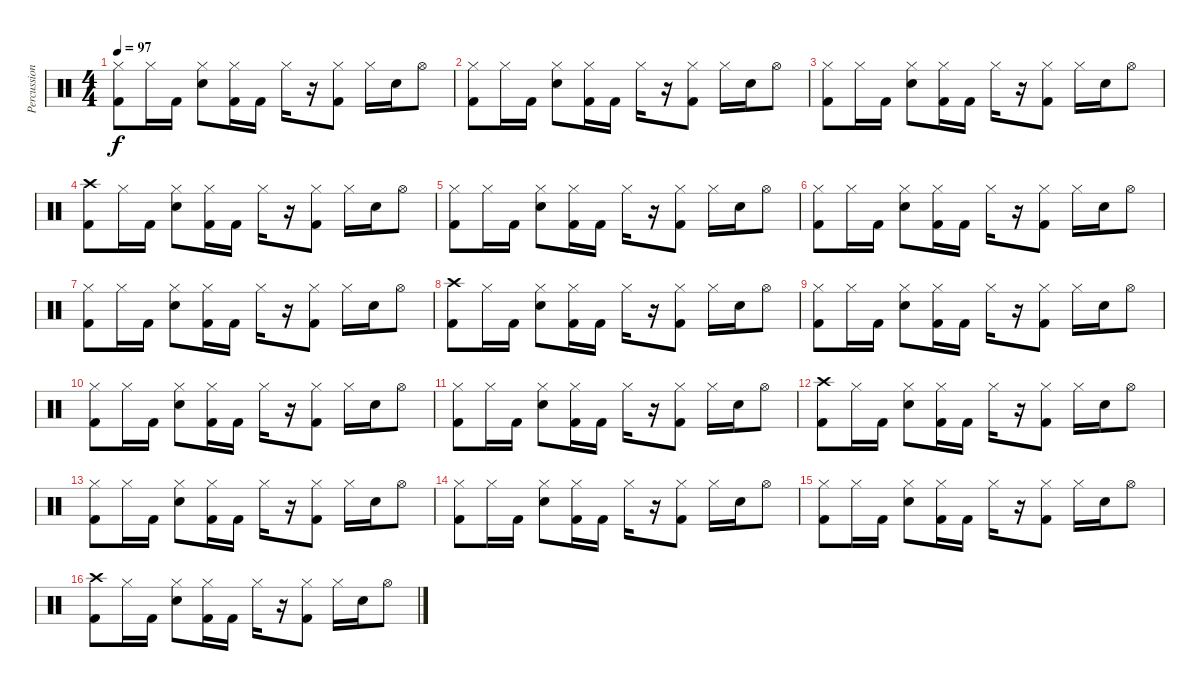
\track ("Percussion" "Percussion") {instrument percussion}
\staff {score}
\articulation defaults
\ts (4 4)
\tempo 97
\clef neutral
\ks c
("Hi-Hat (closed)" "Kick (hit) 2").8{dy f} "Hi-Hat (closed)".16 "Kick (hit) 2".16 ("Hi-Hat (closed)" "Snare (hit) 2").8 ("Hi-Hat (closed)" "Kick (hit) 2").16 "Kick (hit) 2".16 "Hi-Hat (closed)".16 r.16 ("Hi-Hat (closed)" "Kick (hit) 2").8 "Hi-Hat (closed)".16 "Snare (hit) 2".16 "Hi-Hat (open)".8 |
("Hi-Hat (closed)" "Kick (hit) 2").8 "Hi-Hat (closed)".16 "Kick (hit) 2".16 ("Hi-Hat (closed)" "Snare (hit) 2").8 ("Hi-Hat (closed)" "Kick (hit) 2").16 "Kick (hit) 2".16 "Hi-Hat (closed)".16 r.16 ("Hi-Hat (closed)" "Kick (hit) 2").8 "Hi-Hat (closed)".16 "Snare (hit) 2".16 "Hi-Hat (open)".8 |
("Hi-Hat (closed)" "Kick (hit) 2").8 "Hi-Hat (closed)".16 "Kick (hit) 2".16 ("Hi-Hat (closed)" "Snare (hit) 2").8 ("Hi-Hat (closed)" "Kick (hit) 2").16 "Kick (hit) 2".16 "Hi-Hat (closed)".16 r.16 ("Hi-Hat (closed)" "Kick (hit) 2").8 "Hi-Hat (closed)".16 "Snare (hit) 2".16 "Hi-Hat (open)".8 |
("Crash high (hit)" "Kick (hit) 2").8 "Hi-Hat (closed)".16 "Kick (hit) 2".16 ("Hi-Hat (closed)" "Snare (hit) 2").8 ("Hi-Hat (closed)" "Kick (hit) 2").16 "Kick (hit) 2".16 "Hi-Hat (closed)".16 r.16 ("Hi-Hat (closed)" "Kick (hit) 2").8 "Hi-Hat (closed)".16 "Snare (hit) 2".16 "Hi-Hat (open)".8 |
("Hi-Hat (closed)" "Kick (hit) 2").8 "Hi-Hat (closed)".16 "Kick (hit) 2".16 ("Hi-Hat (closed)" "Snare (hit) 2").8 ("Hi-Hat (closed)" "Kick (hit) 2").16 "Kick (hit) 2".16 "Hi-Hat (closed)".16 r.16 ("Hi-Hat (closed)" "Kick (hit) 2").8 "Hi-Hat (closed)".16 "Snare (hit) 2".16 "Hi-Hat (open)".8 |
("Hi-Hat (closed)" "Kick (hit) 2").8 "Hi-Hat (closed)".16 "Kick (hit) 2".16 ("Hi-Hat (closed)" "Snare (hit) 2").8 ("Hi-Hat (closed)" "Kick (hit) 2").16 "Kick (hit) 2".16 "Hi-Hat (closed)".16 r.16 ("Hi-Hat (closed)" "Kick (hit) 2").8 "Hi-Hat (closed)".16 "Snare (hit) 2".16 "Hi-Hat (open)".8 |
("Hi-Hat (closed)" "Kick (hit) 2").8 "Hi-Hat (closed)".16 "Kick (hit) 2".16 ("Hi-Hat (closed)" "Snare (hit) 2").8 ("Hi-Hat (closed)" "Kick (hit) 2").16 "Kick (hit) 2".16 "Hi-Hat (closed)".16 r.16 ("Hi-Hat (closed)" "Kick (hit) 2").8 "Hi-Hat (closed)".16 "Snare (hit) 2".16 "Hi-Hat (open)".8 |
("Crash high (hit)" "Kick (hit) 2").8 "Hi-Hat (closed)".16 "Kick (hit) 2".16 ("Hi-Hat (closed)" "Snare (hit) 2").8 ("Hi-Hat (closed)" "Kick (hit) 2").16 "Kick (hit) 2".16 "Hi-Hat (closed)".16 r.16 ("Hi-Hat (closed)" "Kick (hit) 2").8 "Hi-Hat (closed)".16 "Snare (hit) 2".16 "Hi-Hat (open)".8 |
("Hi-Hat (closed)" "Kick (hit) 2").8 "Hi-Hat (closed)".16 "Kick (hit) 2".16 ("Hi-Hat (closed)" "Snare (hit) 2").8 ("Hi-Hat (closed)" "Kick (hit) 2").16 "Kick (hit) 2".16 "Hi-Hat (closed)".16 r.16 ("Hi-Hat (closed)" "Kick (hit) 2").8 "Hi-Hat (closed)".16 "Snare (hit) 2".16 "Hi-Hat (open)".8 |
("Hi-Hat (closed)" "Kick (hit) 2").8 "Hi-Hat (closed)".16 "Kick (hit) 2".16 ("Hi-Hat (closed)" "Snare (hit) 2").8 ("Hi-Hat (closed)" "Kick (hit) 2").16 "Kick (hit) 2".16 "Hi-Hat (closed)".16 r.16 ("Hi-Hat (closed)" "Kick (hit) 2").8 "Hi-Hat (closed)".16 "Snare (hit) 2".16 "Hi-Hat (open)".8 |
("Hi-Hat (closed)" "Kick (hit) 2").8 "Hi-Hat (closed)".16 "Kick (hit) 2".16 ("Hi-Hat (closed)" "Snare (hit) 2").8 ("Hi-Hat (closed)" "Kick (hit) 2").16 "Kick (hit) 2".16 "Hi-Hat (closed)".16 r.16 ("Hi-Hat (closed)" "Kick (hit) 2").8 "Hi-Hat (closed)".16 "Snare (hit) 2".16 "Hi-Hat (open)".8 |
("Crash high (hit)" "Kick (hit) 2").8 "Hi-Hat (closed)".16 "Kick (hit) 2".16 ("Hi-Hat (closed)" "Snare (hit) 2").8 ("Hi-Hat (closed)" "Kick (hit) 2").16 "Kick (hit) 2".16 "Hi-Hat (closed)".16 r.16 ("Hi-Hat (closed)" "Kick (hit) 2").8 "Hi-Hat (closed)".16 "Snare (hit) 2".16 "Hi-Hat (open)".8 |
("Hi-Hat (closed)" "Kick (hit) 2").8 "Hi-Hat (closed)".16 "Kick (hit) 2".16 ("Hi-Hat (closed)" "Snare (hit) 2").8 ("Hi-Hat (closed)" "Kick (hit) 2").16 "Kick (hit) 2".16 "Hi-Hat (closed)".16 r.16 ("Hi-Hat (closed)" "Kick (hit) 2").8 "Hi-Hat (closed)".16 "Snare (hit) 2".16 "Hi-Hat (open)".8 |
("Hi-Hat (closed)" "Kick (hit) 2").8 "Hi-Hat (closed)".16 "Kick (hit) 2".16 ("Hi-Hat (closed)" "Snare (hit) 2").8 ("Hi-Hat (closed)" "Kick (hit) 2").16 "Kick (hit) 2".16 "Hi-Hat (closed)".16 r.16 ("Hi-Hat (closed)" "Kick (hit) 2").8 "Hi-Hat (closed)".16 "Snare (hit) 2".16 "Hi-Hat (open)".8 |
("Hi-Hat (closed)" "Kick (hit) 2").8 "Hi-Hat (closed)".16 "Kick (hit) 2".16 ("Hi-Hat (closed)" "Snare (hit) 2").8 ("Hi-Hat (closed)" "Kick (hit) 2").16 "Kick (hit) 2".16 "Hi-Hat (closed)".16 r.16 ("Hi-Hat (closed)" "Kick (hit) 2").8 "Hi-Hat (closed)".16 "Snare (hit) 2".16 "Hi-Hat (open)".8 |
("Crash high (hit)" "Kick (hit) 2").8 "Hi-Hat (closed)".16 "Kick (hit) 2".16 ("Hi-Hat (closed)" "Snare (hit) 2").8 ("Hi-Hat (closed)" "Kick (hit) 2").16 "Kick (hit) 2".16 "Hi-Hat (closed)".16 r.16 ("Hi-Hat (closed)" "Kick (hit) 2").8 "Hi-Hat (closed)".16 "Snare (hit) 2".16 "Hi-Hat (open)".8
